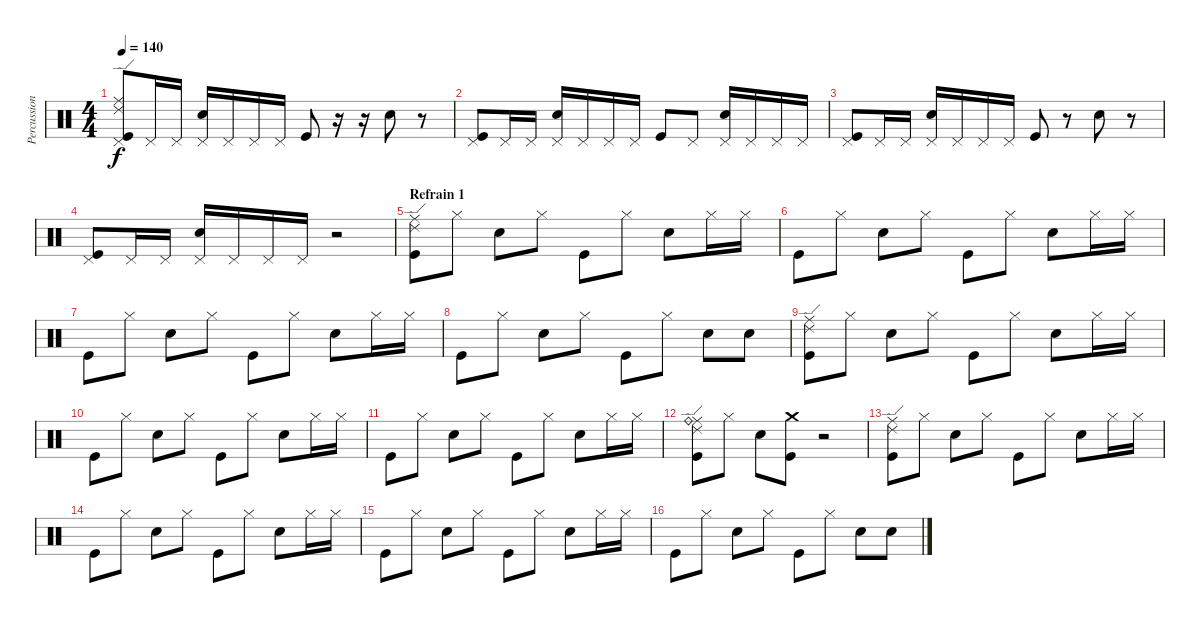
\track ("Percussion" "Percussion") {instrument percussion}
\staff {score}
\articulation defaults
\ts (4 4)
\tempo 140
\clef neutral
\ks c
("Ride (middle)" "Ride (edge) 2" "Pedal Hi-Hat (hit)" "Kick (hit)").8{dy f} "Pedal Hi-Hat (hit)".16 "Pedal Hi-Hat (hit)".16 ("Pedal Hi-Hat (hit)" "Snare (hit) 2").16 "Pedal Hi-Hat (hit)".16 "Pedal Hi-Hat (hit)".16 "Pedal Hi-Hat (hit)".16 "Kick (hit)".8 r.16 r.16 "Snare (hit) 2".8 r.8 |
("Pedal Hi-Hat (hit)" "Kick (hit)").8 "Pedal Hi-Hat (hit)".16 "Pedal Hi-Hat (hit)".16 ("Pedal Hi-Hat (hit)" "Snare (hit) 2").16 "Pedal Hi-Hat (hit)".16 "Pedal Hi-Hat (hit)".16 "Pedal Hi-Hat (hit)".16 "Kick (hit)".8 "Pedal Hi-Hat (hit)".8 ("Pedal Hi-Hat (hit)" "Snare (hit) 2").16 "Pedal Hi-Hat (hit)".16 "Pedal Hi-Hat (hit)".16 "Pedal Hi-Hat (hit)".16 |
("Pedal Hi-Hat (hit)" "Kick (hit)").8 "Pedal Hi-Hat (hit)".16 "Pedal Hi-Hat (hit)".16 ("Pedal Hi-Hat (hit)" "Snare (hit) 2").16 "Pedal Hi-Hat (hit)".16 "Pedal Hi-Hat (hit)".16 "Pedal Hi-Hat (hit)".16 "Kick (hit)".8 r.8 "Snare (hit) 2".8 r.8 |
("Pedal Hi-Hat (hit)" "Kick (hit)").8 "Pedal Hi-Hat (hit)".16 "Pedal Hi-Hat (hit)".16 ("Pedal Hi-Hat (hit)" "Snare (hit) 2").16 "Pedal Hi-Hat (hit)".16 "Pedal Hi-Hat (hit)".16 "Pedal Hi-Hat (hit)".16 r.2 |
\section ("" "Refrain 1")
("Ride (middle)" "Ride (edge) 2" "Kick (hit)").8 "Hi-Hat (closed)".8 "Snare (hit) 2".8 "Hi-Hat (closed)".8 "Kick (hit)".8 "Hi-Hat (closed)".8 "Snare (hit) 2".8 "Hi-Hat (closed)".16 "Hi-Hat (closed)".16 |
"Kick (hit)".8 "Hi-Hat (closed)".8 "Snare (hit) 2".8 "Hi-Hat (closed)".8 "Kick (hit)".8 "Hi-Hat (closed)".8 "Snare (hit) 2".8 "Hi-Hat (closed)".16 "Hi-Hat (closed)".16 |
"Kick (hit)".8 "Hi-Hat (closed)".8 "Snare (hit) 2".8 "Hi-Hat (closed)".8 "Kick (hit)".8 "Hi-Hat (closed)".8 "Snare (hit) 2".8 "Hi-Hat (closed)".16 "Hi-Hat (closed)".16 |
"Kick (hit)".8 "Hi-Hat (closed)".8 "Snare (hit) 2".8 "Hi-Hat (closed)".8 "Kick (hit)".8 "Hi-Hat (closed)".8 "Snare (hit) 2".8 "Snare (hit) 2".8 |
("Ride (middle)" "Ride (edge) 2" "Kick (hit)").8 "Hi-Hat (closed)".8 "Snare (hit) 2".8 "Hi-Hat (closed)".8 "Kick (hit)".8 "Hi-Hat (closed)".8 "Snare (hit) 2".8 "Hi-Hat (closed)".16 "Hi-Hat (closed)".16 |
"Kick (hit)".8 "Hi-Hat (closed)".8 "Snare (hit) 2".8 "Hi-Hat (closed)".8 "Kick (hit)".8 "Hi-Hat (closed)".8 "Snare (hit) 2".8 "Hi-Hat (closed)".16 "Hi-Hat (closed)".16 |
"Kick (hit)".8 "Hi-Hat (closed)".8 "Snare (hit) 2".8 "Hi-Hat (closed)".8 "Kick (hit)".8 "Hi-Hat (closed)".8 "Snare (hit) 2".8 "Hi-Hat (closed)".16 "Hi-Hat (closed)".16 |
("Ride (edge) 2" "Ride (middle)" "Ride (bell)" "Kick (hit)").8 "Hi-Hat (closed)".8 "Snare (hit) 2".8 ("Crash medium (hit)" "Kick (hit)").8 r.2 |
("Ride (middle)" "Ride (edge) 2" "Kick (hit)").8 "Hi-Hat (closed)".8 "Snare (hit) 2".8 "Hi-Hat (closed)".8 "Kick (hit)".8 "Hi-Hat (closed)".8 "Snare (hit) 2".8 "Hi-Hat (closed)".16 "Hi-Hat (closed)".16 |
"Kick (hit)".8 "Hi-Hat (closed)".8 "Snare (hit) 2".8 "Hi-Hat (closed)".8 "Kick (hit)".8 "Hi-Hat (closed)".8 "Snare (hit) 2".8 "Hi-Hat (closed)".16 "Hi-Hat (closed)".16 |
"Kick (hit)".8 "Hi-Hat (closed)".8 "Snare (hit) 2".8 "Hi-Hat (closed)".8 "Kick (hit)".8 "Hi-Hat (closed)".8 "Snare (hit) 2".8 "Hi-Hat (closed)".16 "Hi-Hat (closed)".16 |
"Kick (hit)".8 "Hi-Hat (closed)".8 "Snare (hit) 2".8 "Hi-Hat (closed)".8 "Kick (hit)".8 "Hi-Hat (closed)".8 "Snare (hit) 2".8 "Snare (hit) 2".8
